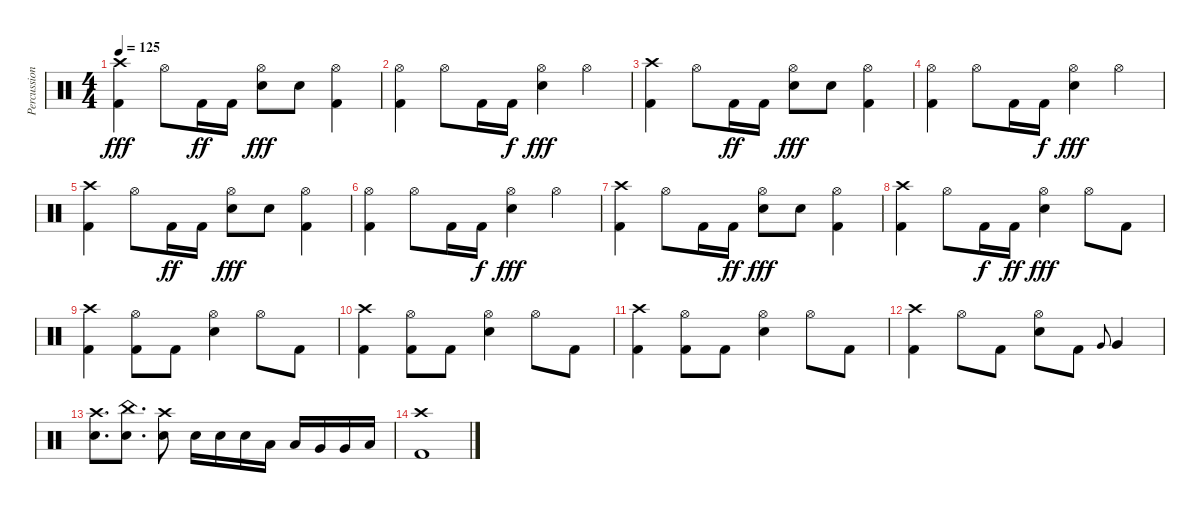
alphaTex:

\track ("Percussion" "Percussion") {instrument percussion}
\staff {score}
\articulation defaults
\ts (4 4)
\tempo 125
\clef neutral
\ks c
("Crash high (hit)" "Kick (hit) 2").4{dy fff} "Hi-Hat (open)".8 "Kick (hit) 2".16{dy ff} "Kick (hit) 2".16 ("Hi-Hat (open)" "Electric Snare (hit)").8{dy fff} "Electric Snare (hit)".8 ("Hi-Hat (open)" "Kick (hit) 2").4 |
("Hi-Hat (open)" "Kick (hit) 2").4 "Hi-Hat (open)".8 "Kick (hit) 2".16 "Kick (hit) 2".16{dy f} ("Hi-Hat (open)" "Electric Snare (hit)").4{dy fff} "Hi-Hat (open)".4 |
("Crash high (hit)" "Kick (hit) 2").4 "Hi-Hat (open)".8 "Kick (hit) 2".16{dy ff} "Kick (hit) 2".16 ("Hi-Hat (open)" "Electric Snare (hit)").8{dy fff} "Electric Snare (hit)".8 ("Hi-Hat (open)" "Kick (hit) 2").4 |
("Hi-Hat (open)" "Kick (hit) 2").4 "Hi-Hat (open)".8 "Kick (hit) 2".16 "Kick (hit) 2".16{dy f} ("Hi-Hat (open)" "Electric Snare (hit)").4{dy fff} "Hi-Hat (open)".4 |
("Crash high (hit)" "Kick (hit) 2").4 "Hi-Hat (open)".8 "Kick (hit) 2".16{dy ff} "Kick (hit) 2".16 ("Hi-Hat (open)" "Electric Snare (hit)").8{dy fff} "Electric Snare (hit)".8 ("Hi-Hat (open)" "Kick (hit) 2").4 |
("Hi-Hat (open)" "Kick (hit) 2").4 "Hi-Hat (open)".8 "Kick (hit) 2".16 "Kick (hit) 2".16{dy f} ("Hi-Hat (open)" "Electric Snare (hit)").4{dy fff} "Hi-Hat (open)".4 |
("Kick (hit) 2" "Crash high (hit)").4 "Hi-Hat (open)".8 "Kick (hit) 2".16 "Kick (hit) 2".16{dy ff} ("Electric Snare (hit)" "Hi-Hat (open)").8{dy fff} "Electric Snare (hit)".8 ("Hi-Hat (open)" "Kick (hit) 2").4 |
("Kick (hit) 2" "Crash high (hit)").4 "Hi-Hat (open)".8 "Kick (hit) 2".16{dy f} "Kick (hit) 2".16{dy ff} ("Hi-Hat (open)" "Electric Snare (hit)").4{dy fff} "Hi-Hat (open)".8 "Kick (hit) 2".8 |
("Crash high (hit)" "Kick (hit) 2").4 ("Hi-Hat (open)" "Kick (hit) 2").8 "Kick (hit) 2".8 ("Hi-Hat (open)" "Electric Snare (hit)").4 "Hi-Hat (open)".8 "Kick (hit) 2".8 |
("Crash high (hit)" "Kick (hit) 2").4 ("Hi-Hat (open)" "Kick (hit) 2").8 "Kick (hit) 2".8 ("Hi-Hat (open)" "Electric Snare (hit)").4 "Hi-Hat (open)".8 "Kick (hit) 2".8 |
("Crash high (hit)" "Kick (hit) 2").4 ("Hi-Hat (open)" "Kick (hit) 2").8 "Kick (hit) 2".8 ("Hi-Hat (open)" "Electric Snare (hit)").4 "Hi-Hat (open)".8 "Kick (hit) 2".8 |
("Crash high (hit)" "Kick (hit) 2").4 "Hi-Hat (open)".8 "Kick (hit) 2".8 ("Hi-Hat (open)" "Electric Snare (hit)").8 "Kick (hit) 2".8 "Very Low Tom (hit)".8{gr onbeat} "Very Low Tom (hit)".4 |
("Electric Snare (hit)" "Crash high (hit)").8{d} ("Electric Snare (hit)" "China (hit)").8{d} ("Crash high (hit)" "Electric Snare (hit)").8 "Electric Snare (hit)".16 "Electric Snare (hit)".16 "Electric Snare (hit)".16 "Low Tom (hit)".16 "Low Tom (hit)".16 "Very Low Tom (hit)".16 "Very Low Tom (hit)".16 "Low Floor Tom (hit)".16 |
("Kick (hit) 2" "Crash high (hit)").1
